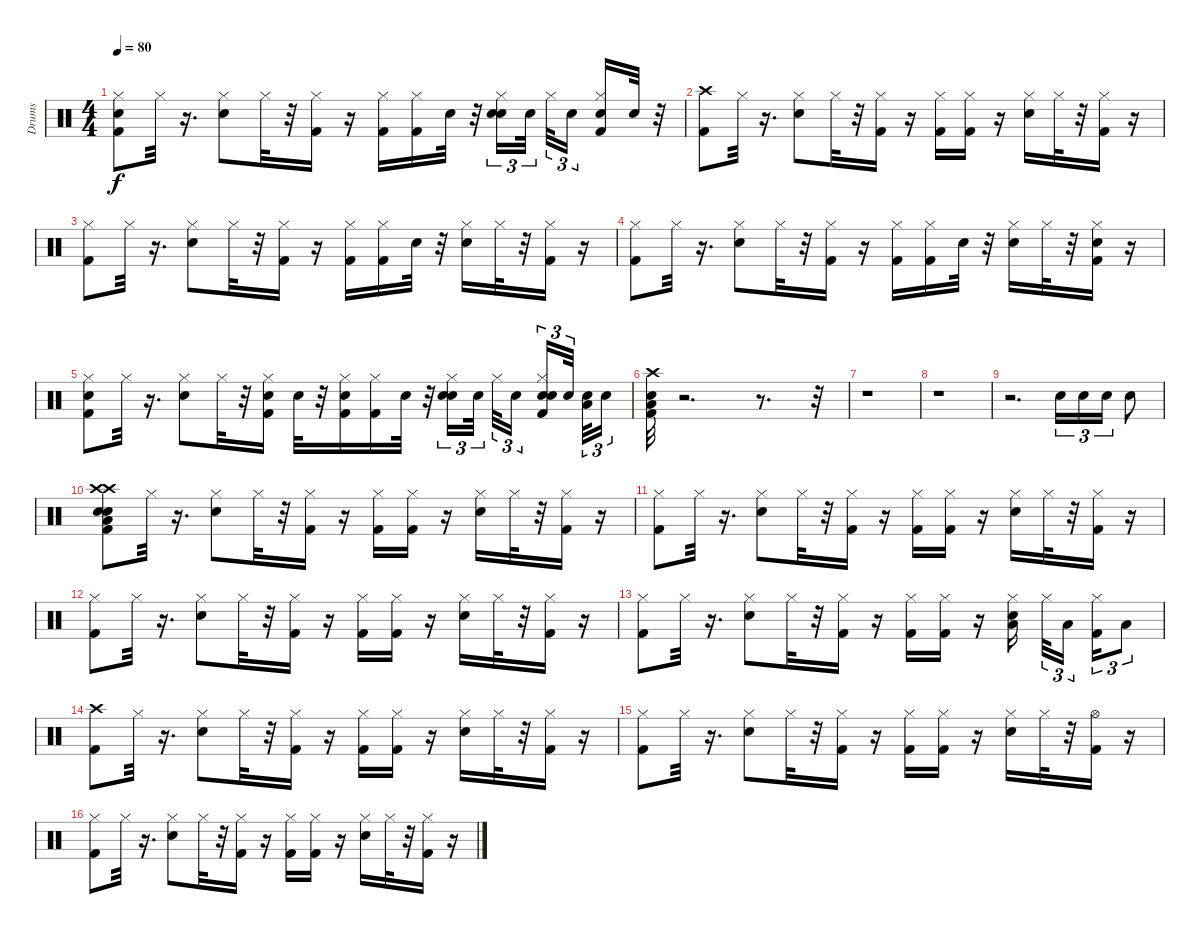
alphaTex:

\track ("Drums" "Drums") {instrument percussion}
\staff {score}
\articulation defaults
\ts (4 4)
\tempo 80
\clef neutral
\ks c
("Snare (hit) 2" "Hi-Hat (closed)" "Kick (hit) 2").8{dy f} "Hi-Hat (closed)".32 r.16{d} ("Hi-Hat (closed)" "Snare (hit) 2").8 "Hi-Hat (closed)".32 r.32 ("Kick (hit) 2" "Hi-Hat (closed)").16 r.16 ("Hi-Hat (closed)" "Kick (hit) 2").16 ("Hi-Hat (closed)" "Kick (hit) 2").16 "Snare (hit) 2".32 r.32 ("Snare (hit) 2" "Hi-Hat (closed)" "Snare (hit) 2").16{tu (3 2)} "Snare (hit) 2".32{tu (3 2)} "Hi-Hat (closed)".32{tu (3 2)} "Snare (hit) 2".16{tu (3 2)} ("Snare (hit) 2" "Hi-Hat (closed)" "Kick (hit) 2").16 "Snare (hit) 2".32 r.32 |
("Crash high (hit)" "Kick (hit) 2").8 "Hi-Hat (closed)".32 r.16{d} ("Hi-Hat (closed)" "Snare (hit) 2").8 "Hi-Hat (closed)".32 r.32 ("Kick (hit) 2" "Hi-Hat (closed)").16 r.16 ("Hi-Hat (closed)" "Kick (hit) 2").16 ("Hi-Hat (closed)" "Kick (hit) 2").16 r.16 ("Hi-Hat (closed)" "Snare (hit) 2").16 "Hi-Hat (closed)".32 r.32 ("Hi-Hat (closed)" "Kick (hit) 2").16 r.16 |
("Hi-Hat (closed)" "Kick (hit) 2").8 "Hi-Hat (closed)".32 r.16{d} ("Hi-Hat (closed)" "Snare (hit) 2").8 "Hi-Hat (closed)".32 r.32 ("Kick (hit) 2" "Hi-Hat (closed)").16 r.16 ("Hi-Hat (closed)" "Kick (hit) 2").16 ("Hi-Hat (closed)" "Kick (hit) 2").16 "Snare (hit) 2".32 r.32 ("Hi-Hat (closed)" "Snare (hit) 2").16 "Hi-Hat (closed)".32 r.32 ("Hi-Hat (closed)" "Kick (hit) 2").16 r.16 |
("Hi-Hat (closed)" "Kick (hit) 2").8 "Hi-Hat (closed)".32 r.16{d} ("Hi-Hat (closed)" "Snare (hit) 2").8 "Hi-Hat (closed)".32 r.32 ("Kick (hit) 2" "Hi-Hat (closed)").16 r.16 ("Hi-Hat (closed)" "Kick (hit) 2").16 ("Hi-Hat (closed)" "Kick (hit) 2").16 "Snare (hit) 2".32 r.32 ("Hi-Hat (closed)" "Snare (hit) 2").16 "Hi-Hat (closed)".32 r.32 ("Snare (hit) 2" "Hi-Hat (closed)" "Kick (hit) 2").16 r.16 |
("Snare (hit) 2" "Hi-Hat (closed)" "Kick (hit) 2").8 "Hi-Hat (closed)".32 r.16{d} ("Hi-Hat (closed)" "Snare (hit) 2").8 "Hi-Hat (closed)".32 r.32 ("Snare (hit) 2" "Kick (hit) 2" "Hi-Hat (closed)").16 "Snare (hit) 2".32 r.32 ("Snare (hit) 2" "Hi-Hat (closed)" "Kick (hit) 2").16 ("Hi-Hat (closed)" "Kick (hit) 2").16 "Snare (hit) 2".32 r.32 ("Snare (hit) 2" "Hi-Hat (closed)" "Snare (hit) 2").16{tu (3 2)} "Snare (hit) 2".32{tu (3 2)} "Hi-Hat (closed)".32{tu (3 2)} "Snare (hit) 2".16{tu (3 2)} ("Snare (hit) 2" "Snare (hit) 2" "Hi-Hat (closed)" "Kick (hit) 2").16{tu (3 2)} "Snare (hit) 2".32{tu (3 2)} ("Low Floor Tom (hit)" "Snare (hit) 2").32{tu (3 2)} "Snare (hit) 2".16{tu (3 2)} |
("Snare (hit) 2" "Kick (hit) 2" "Low Floor Tom (hit)" "Crash high (hit)").32 r.2{d} r.8{d} r.32 |
r.1 |
r.1 |
r.2{d} "Snare (hit) 2".16{tu (3 2)} "Snare (hit) 2".16{tu (3 2)} "Snare (hit) 2".16{tu (3 2)} "Snare (hit) 2".8 |
("Crash high (hit)" "Snare (hit) 2" "Snare (hit) 2" "Low Floor Tom (hit)" "Crash high (hit)" "Kick (hit) 2").8 "Hi-Hat (closed)".32 r.16{d} ("Hi-Hat (closed)" "Snare (hit) 2").8 "Hi-Hat (closed)".32 r.32 ("Kick (hit) 2" "Hi-Hat (closed)").16 r.16 ("Hi-Hat (closed)" "Kick (hit) 2").16 ("Hi-Hat (closed)" "Kick (hit) 2").16 r.16 ("Hi-Hat (closed)" "Snare (hit) 2").16 "Hi-Hat (closed)".32 r.32 ("Hi-Hat (closed)" "Kick (hit) 2").16 r.16 |
("Hi-Hat (closed)" "Kick (hit) 2").8 "Hi-Hat (closed)".32 r.16{d} ("Hi-Hat (closed)" "Snare (hit) 2").8 "Hi-Hat (closed)".32 r.32 ("Kick (hit) 2" "Hi-Hat (closed)").16 r.16 ("Hi-Hat (closed)" "Kick (hit) 2").16 ("Hi-Hat (closed)" "Kick (hit) 2").16 r.16 ("Hi-Hat (closed)" "Snare (hit) 2").16 "Hi-Hat (closed)".32 r.32 ("Hi-Hat (closed)" "Kick (hit) 2").16 r.16 |
("Hi-Hat (closed)" "Kick (hit) 2").8 "Hi-Hat (closed)".32 r.16{d} ("Hi-Hat (closed)" "Snare (hit) 2").8 "Hi-Hat (closed)".32 r.32 ("Kick (hit) 2" "Hi-Hat (closed)").16 r.16 ("Hi-Hat (closed)" "Kick (hit) 2").16 ("Hi-Hat (closed)" "Kick (hit) 2").16 r.16 ("Hi-Hat (closed)" "Snare (hit) 2").16 "Hi-Hat (closed)".32 r.32 ("Hi-Hat (closed)" "Kick (hit) 2").16 r.16 |
("Hi-Hat (closed)" "Kick (hit) 2").8 "Hi-Hat (closed)".32 r.16{d} ("Hi-Hat (closed)" "Snare (hit) 2").8 "Hi-Hat (closed)".32 r.32 ("Kick (hit) 2" "Hi-Hat (closed)").16 r.16 ("Hi-Hat (closed)" "Kick (hit) 2").16 ("Hi-Hat (closed)" "Kick (hit) 2").16 r.16 ("Low Floor Tom (hit)" "Hi-Hat (closed)" "Snare (hit) 2").16 "Hi-Hat (closed)".32{tu (3 2)} "Low Floor Tom (hit)".16{tu (3 2)} ("Hi-Hat (closed)" "Kick (hit) 2").16{tu (3 2)} "Low Floor Tom (hit)".8{tu (3 2)} |
("Crash high (hit)" "Kick (hit) 2").8 "Hi-Hat (closed)".32 r.16{d} ("Hi-Hat (closed)" "Snare (hit) 2").8 "Hi-Hat (closed)".32 r.32 ("Kick (hit) 2" "Hi-Hat (closed)").16 r.16 ("Hi-Hat (closed)" "Kick (hit) 2").16 ("Hi-Hat (closed)" "Kick (hit) 2").16 r.16 ("Hi-Hat (closed)" "Snare (hit) 2").16 "Hi-Hat (closed)".32 r.32 ("Hi-Hat (closed)" "Kick (hit) 2").16 r.16 |
("Hi-Hat (closed)" "Kick (hit) 2").8 "Hi-Hat (closed)".32 r.16{d} ("Hi-Hat (closed)" "Snare (hit) 2").8 "Hi-Hat (closed)".32 r.32 ("Kick (hit) 2" "Hi-Hat (closed)").16 r.16 ("Hi-Hat (closed)" "Kick (hit) 2").16 ("Hi-Hat (closed)" "Kick (hit) 2").16 r.16 ("Hi-Hat (closed)" "Snare (hit) 2").16 "Hi-Hat (closed)".32 r.32 ("Hi-Hat (open)" "Kick (hit) 2").16 r.16 |
("Hi-Hat (closed)" "Kick (hit) 2").8 "Hi-Hat (closed)".32 r.16{d} ("Hi-Hat (closed)" "Snare (hit) 2").8 "Hi-Hat (closed)".32 r.32 ("Kick (hit) 2" "Hi-Hat (closed)").16 r.16 ("Hi-Hat (closed)" "Kick (hit) 2").16 ("Hi-Hat (closed)" "Kick (hit) 2").16 r.16 ("Hi-Hat (closed)" "Snare (hit) 2").16 "Hi-Hat (closed)".32 r.32 ("Hi-Hat (closed)" "Kick (hit) 2").16 r.16
